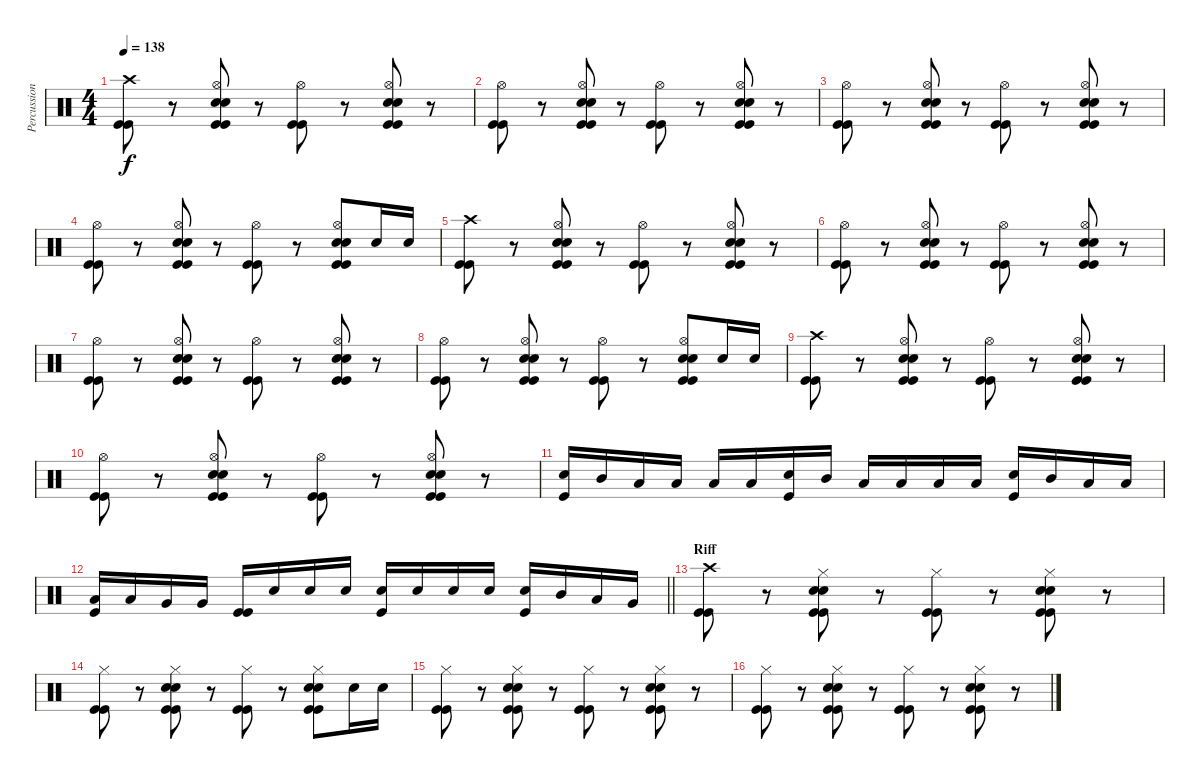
\track ("Percussioni" "Percussion") {instrument percussion}
\staff {score}
\articulation defaults
\ts (4 4)
\tempo 138
\clef neutral
\ks c
("Crash high (hit)" "Kick (hit)" "Kick (hit)").8{dy f} r.8 ("Hi-Hat (open)" "Snare (hit) 2" "Snare (hit) 2" "Kick (hit)" "Kick (hit)").8 r.8 ("Hi-Hat (open)" "Kick (hit)" "Kick (hit)").8 r.8 ("Hi-Hat (open)" "Snare (hit) 2" "Snare (hit) 2" "Kick (hit)" "Kick (hit)").8 r.8 |
("Hi-Hat (open)" "Kick (hit)" "Kick (hit)").8 r.8 ("Hi-Hat (open)" "Snare (hit) 2" "Snare (hit) 2" "Kick (hit)" "Kick (hit)").8 r.8 ("Hi-Hat (open)" "Kick (hit)" "Kick (hit)").8 r.8 ("Hi-Hat (open)" "Snare (hit) 2" "Snare (hit) 2" "Kick (hit)" "Kick (hit)").8 r.8 |
("Hi-Hat (open)" "Kick (hit)" "Kick (hit)").8 r.8 ("Hi-Hat (open)" "Snare (hit) 2" "Snare (hit) 2" "Kick (hit)" "Kick (hit)").8 r.8 ("Hi-Hat (open)" "Kick (hit)" "Kick (hit)").8 r.8 ("Hi-Hat (open)" "Snare (hit) 2" "Snare (hit) 2" "Kick (hit)" "Kick (hit)").8 r.8 |
("Hi-Hat (open)" "Kick (hit)" "Kick (hit)").8 r.8 ("Hi-Hat (open)" "Snare (hit) 2" "Snare (hit) 2" "Kick (hit)" "Kick (hit)").8 r.8 ("Hi-Hat (open)" "Kick (hit)" "Kick (hit)").8 r.8 ("Hi-Hat (open)" "Snare (hit) 2" "Snare (hit) 2" "Kick (hit)" "Kick (hit)").8 "Snare (hit) 2".16 "Snare (hit) 2".16 |
("Crash high (hit)" "Kick (hit)" "Kick (hit)").8 r.8 ("Hi-Hat (open)" "Snare (hit) 2" "Snare (hit) 2" "Kick (hit)" "Kick (hit)").8 r.8 ("Hi-Hat (open)" "Kick (hit)" "Kick (hit)").8 r.8 ("Hi-Hat (open)" "Snare (hit) 2" "Snare (hit) 2" "Kick (hit)" "Kick (hit)").8 r.8 |
("Hi-Hat (open)" "Kick (hit)" "Kick (hit)").8 r.8 ("Hi-Hat (open)" "Snare (hit) 2" "Snare (hit) 2" "Kick (hit)" "Kick (hit)").8 r.8 ("Hi-Hat (open)" "Kick (hit)" "Kick (hit)").8 r.8 ("Hi-Hat (open)" "Snare (hit) 2" "Snare (hit) 2" "Kick (hit)" "Kick (hit)").8 r.8 |
("Hi-Hat (open)" "Kick (hit)" "Kick (hit)").8 r.8 ("Hi-Hat (open)" "Snare (hit) 2" "Snare (hit) 2" "Kick (hit)" "Kick (hit)").8 r.8 ("Hi-Hat (open)" "Kick (hit)" "Kick (hit)").8 r.8 ("Hi-Hat (open)" "Snare (hit) 2" "Snare (hit) 2" "Kick (hit)" "Kick (hit)").8 r.8 |
("Hi-Hat (open)" "Kick (hit)" "Kick (hit)").8 r.8 ("Hi-Hat (open)" "Snare (hit) 2" "Snare (hit) 2" "Kick (hit)" "Kick (hit)").8 r.8 ("Hi-Hat (open)" "Kick (hit)" "Kick (hit)").8 r.8 ("Hi-Hat (open)" "Snare (hit) 2" "Snare (hit) 2" "Kick (hit)" "Kick (hit)").8 "Snare (hit) 2".16 "Snare (hit) 2".16 |
("Crash high (hit)" "Kick (hit)" "Kick (hit)").8 r.8 ("Hi-Hat (open)" "Snare (hit) 2" "Snare (hit) 2" "Kick (hit)" "Kick (hit)").8 r.8 ("Hi-Hat (open)" "Kick (hit)" "Kick (hit)").8 r.8 ("Hi-Hat (open)" "Snare (hit) 2" "Snare (hit) 2" "Kick (hit)" "Kick (hit)").8 r.8 |
("Hi-Hat (open)" "Kick (hit)" "Kick (hit)").8 r.8 ("Hi-Hat (open)" "Snare (hit) 2" "Snare (hit) 2" "Kick (hit)" "Kick (hit)").8 r.8 ("Hi-Hat (open)" "Kick (hit)" "Kick (hit)").8 r.8 ("Hi-Hat (open)" "Snare (hit) 2" "Snare (hit) 2" "Kick (hit)" "Kick (hit)").8 r.8 |
("Snare (hit) 2" "Kick (hit)").16 "Mid Tom (hit)".16 "Low Tom (hit)".16 "Low Tom (hit)".16 "Low Tom (hit)".16 "Low Tom (hit)".16 ("Snare (hit) 2" "Kick (hit)").16 "Mid Tom (hit)".16 "Low Tom (hit)".16 "Low Tom (hit)".16 "Low Tom (hit)".16 "Low Tom (hit)".16 ("Snare (hit) 2" "Kick (hit)").16 "Mid Tom (hit)".16 "Low Tom (hit)".16 "Low Tom (hit)".16 |
\barLineRight lightlight
("Low Tom (hit)" "Kick (hit)").16 "Low Tom (hit)".16 "Very Low Tom (hit)".16 "Very Low Tom (hit)".16 ("Kick (hit)" "Kick (hit)").16 "Snare (hit) 2".16 "Snare (hit) 2".16 "Snare (hit) 2".16 ("Snare (hit) 2" "Kick (hit)").16 "Snare (hit) 2".16 "Snare (hit) 2".16 "Snare (hit) 2".16 ("Snare (hit) 2" "Kick (hit)").16 "Mid Tom (hit)".16 "Low Tom (hit)".16 "Very Low Tom (hit)".16 |
\section ("" "Riff")
("Crash high (hit)" "Kick (hit)" "Kick (hit)").8 r.8 ("Hi-Hat (closed)" "Snare (hit) 2" "Snare (hit) 2" "Kick (hit)" "Kick (hit)").8 r.8 ("Hi-Hat (closed)" "Kick (hit)" "Kick (hit)").8 r.8 ("Hi-Hat (closed)" "Snare (hit) 2" "Snare (hit) 2" "Kick (hit)" "Kick (hit)").8 r.8 |
("Hi-Hat (closed)" "Kick (hit)" "Kick (hit)").8 r.8 ("Hi-Hat (closed)" "Snare (hit) 2" "Snare (hit) 2" "Kick (hit)" "Kick (hit)").8 r.8 ("Hi-Hat (closed)" "Kick (hit)" "Kick (hit)").8 r.8 ("Hi-Hat (closed)" "Snare (hit) 2" "Snare (hit) 2" "Kick (hit)" "Kick (hit)").8 "Snare (hit) 2".16 "Snare (hit) 2".16 |
("Hi-Hat (closed)" "Kick (hit)" "Kick (hit)").8 r.8 ("Hi-Hat (closed)" "Snare (hit) 2" "Snare (hit) 2" "Kick (hit)" "Kick (hit)").8 r.8 ("Hi-Hat (closed)" "Kick (hit)" "Kick (hit)").8 r.8 ("Hi-Hat (closed)" "Snare (hit) 2" "Snare (hit) 2" "Kick (hit)" "Kick (hit)").8 r.8 |
("Hi-Hat (closed)" "Kick (hit)" "Kick (hit)").8 r.8 ("Hi-Hat (closed)" "Snare (hit) 2" "Snare (hit) 2" "Kick (hit)" "Kick (hit)").8 r.8 ("Hi-Hat (closed)" "Kick (hit)" "Kick (hit)").8 r.8 ("Hi-Hat (closed)" "Snare (hit) 2" "Snare (hit) 2" "Kick (hit)" "Kick (hit)").8 r.8
